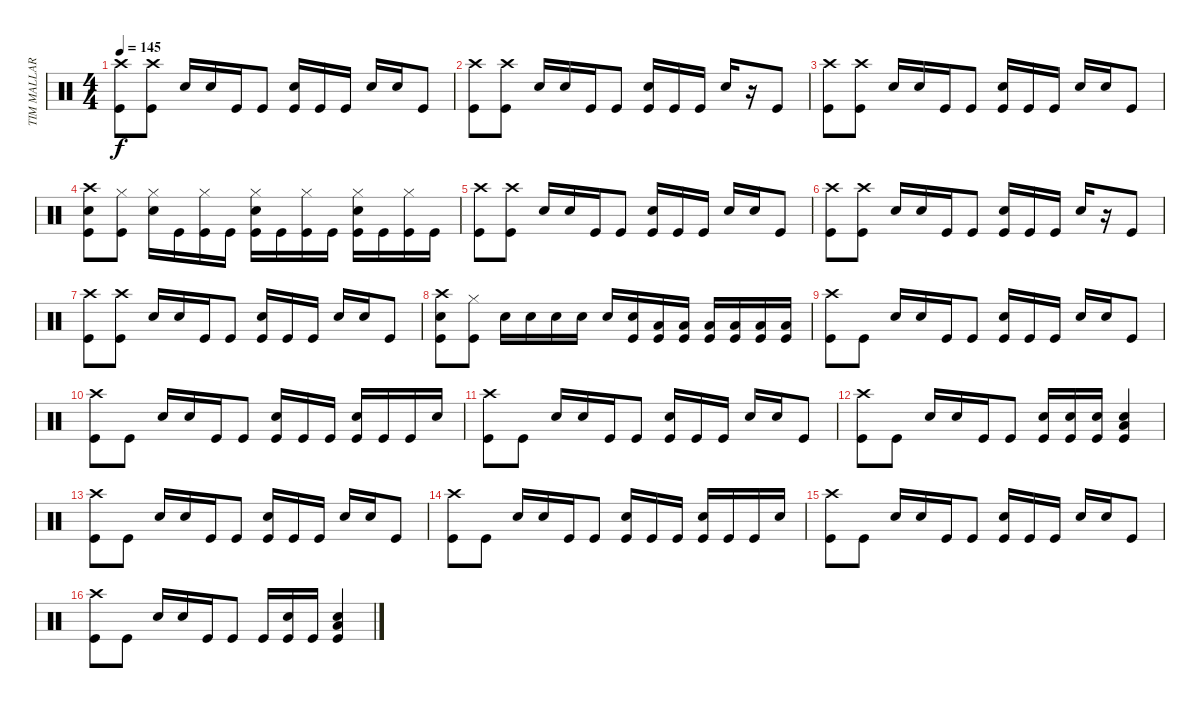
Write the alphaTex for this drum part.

\track ("TIM MALLARE - drums" "TIM MALLAR") {instrument percussion}
\staff {score}
\articulation defaults
\ts (4 4)
\tempo 145
\clef neutral
\ks c
("Crash high (hit)" "Kick (hit)").8{dy f} ("Crash high (hit)" "Kick (hit)").8 "Electric Snare (hit)".16 "Electric Snare (hit)".16 "Kick (hit)".16 "Kick (hit)".8 ("Electric Snare (hit)" "Kick (hit)").16 "Kick (hit)".16 "Kick (hit)".16 "Electric Snare (hit)".16 "Electric Snare (hit)".16 "Kick (hit)".8 |
("Crash high (hit)" "Kick (hit)").8 ("Crash high (hit)" "Kick (hit)").8 "Electric Snare (hit)".16 "Electric Snare (hit)".16 "Kick (hit)".16 "Kick (hit)".8 ("Electric Snare (hit)" "Kick (hit)").16 "Kick (hit)".16 "Kick (hit)".16 "Electric Snare (hit)".16 r.16 "Kick (hit)".8 |
("Crash high (hit)" "Kick (hit)").8 ("Crash high (hit)" "Kick (hit)").8 "Electric Snare (hit)".16 "Electric Snare (hit)".16 "Kick (hit)".16 "Kick (hit)".8 ("Electric Snare (hit)" "Kick (hit)").16 "Kick (hit)".16 "Kick (hit)".16 "Electric Snare (hit)".16 "Electric Snare (hit)".16 "Kick (hit)".8 |
("Crash high (hit)" "Electric Snare (hit)" "Kick (hit)").8 ("Hi-Hat (closed)" "Kick (hit)").8 ("Hi-Hat (closed)" "Electric Snare (hit)").16 "Kick (hit)".16 ("Hi-Hat (closed)" "Kick (hit)").16 "Kick (hit)".16 ("Hi-Hat (closed)" "Electric Snare (hit)" "Kick (hit)").16 "Kick (hit)".16 ("Hi-Hat (closed)" "Kick (hit)").16 "Kick (hit)".16 ("Hi-Hat (closed)" "Electric Snare (hit)" "Kick (hit)").16 "Kick (hit)".16 ("Hi-Hat (closed)" "Kick (hit)").16 "Kick (hit)".16 |
("Crash high (hit)" "Kick (hit)").8 ("Crash high (hit)" "Kick (hit)").8 "Electric Snare (hit)".16 "Electric Snare (hit)".16 "Kick (hit)".16 "Kick (hit)".8 ("Electric Snare (hit)" "Kick (hit)").16 "Kick (hit)".16 "Kick (hit)".16 "Electric Snare (hit)".16 "Electric Snare (hit)".16 "Kick (hit)".8 |
("Crash high (hit)" "Kick (hit)").8 ("Crash high (hit)" "Kick (hit)").8 "Electric Snare (hit)".16 "Electric Snare (hit)".16 "Kick (hit)".16 "Kick (hit)".8 ("Electric Snare (hit)" "Kick (hit)").16 "Kick (hit)".16 "Kick (hit)".16 "Electric Snare (hit)".16 r.16 "Kick (hit)".8 |
("Crash high (hit)" "Kick (hit)").8 ("Crash high (hit)" "Kick (hit)").8 "Electric Snare (hit)".16 "Electric Snare (hit)".16 "Kick (hit)".16 "Kick (hit)".8 ("Electric Snare (hit)" "Kick (hit)").16 "Kick (hit)".16 "Kick (hit)".16 "Electric Snare (hit)".16 "Electric Snare (hit)".16 "Kick (hit)".8 |
("Crash high (hit)" "Electric Snare (hit)" "Kick (hit)").8 ("Hi-Hat (closed)" "Kick (hit)").8 "Electric Snare (hit)".16 "Electric Snare (hit)".16 "Electric Snare (hit)".16 "Electric Snare (hit)".16 "Electric Snare (hit)".16 ("Electric Snare (hit)" "Kick (hit)").16 ("Low Tom (hit)" "Kick (hit)").16 ("Low Tom (hit)" "Kick (hit)").16 ("Low Tom (hit)" "Kick (hit)").16 ("Low Tom (hit)" "Kick (hit)").16 ("Low Tom (hit)" "Kick (hit)").16 ("Low Tom (hit)" "Kick (hit)").16 |
("Crash high (hit)" "Kick (hit)").8 "Kick (hit)".8 "Electric Snare (hit)".16 "Electric Snare (hit)".16 "Kick (hit)".16 "Kick (hit)".8 ("Electric Snare (hit)" "Kick (hit)").16 "Kick (hit)".16 "Kick (hit)".16 "Electric Snare (hit)".16 "Electric Snare (hit)".16 "Kick (hit)".8 |
("Crash high (hit)" "Kick (hit)").8 "Kick (hit)".8 "Electric Snare (hit)".16 "Electric Snare (hit)".16 "Kick (hit)".16 "Kick (hit)".8 ("Electric Snare (hit)" "Kick (hit)").16 "Kick (hit)".16 "Kick (hit)".16 ("Electric Snare (hit)" "Kick (hit)").16 "Kick (hit)".16 "Kick (hit)".16 "Electric Snare (hit)".16 |
("Crash high (hit)" "Kick (hit)").8 "Kick (hit)".8 "Electric Snare (hit)".16 "Electric Snare (hit)".16 "Kick (hit)".16 "Kick (hit)".8 ("Electric Snare (hit)" "Kick (hit)").16 "Kick (hit)".16 "Kick (hit)".16 "Electric Snare (hit)".16 "Electric Snare (hit)".16 "Kick (hit)".8 |
("Crash high (hit)" "Kick (hit)").8 "Kick (hit)".8 "Electric Snare (hit)".16 "Electric Snare (hit)".16 "Kick (hit)".16 "Kick (hit)".8 ("Electric Snare (hit)" "Kick (hit)").16 ("Electric Snare (hit)" "Kick (hit)").16 ("Electric Snare (hit)" "Kick (hit)").16 ("Electric Snare (hit)" "Low Tom (hit)" "Kick (hit)").4 |
("Crash high (hit)" "Kick (hit)").8 "Kick (hit)".8 "Electric Snare (hit)".16 "Electric Snare (hit)".16 "Kick (hit)".16 "Kick (hit)".8 ("Electric Snare (hit)" "Kick (hit)").16 "Kick (hit)".16 "Kick (hit)".16 "Electric Snare (hit)".16 "Electric Snare (hit)".16 "Kick (hit)".8 |
("Crash high (hit)" "Kick (hit)").8 "Kick (hit)".8 "Electric Snare (hit)".16 "Electric Snare (hit)".16 "Kick (hit)".16 "Kick (hit)".8 ("Electric Snare (hit)" "Kick (hit)").16 "Kick (hit)".16 "Kick (hit)".16 ("Electric Snare (hit)" "Kick (hit)").16 "Kick (hit)".16 "Kick (hit)".16 "Electric Snare (hit)".16 |
("Crash high (hit)" "Kick (hit)").8 "Kick (hit)".8 "Electric Snare (hit)".16 "Electric Snare (hit)".16 "Kick (hit)".16 "Kick (hit)".8 ("Electric Snare (hit)" "Kick (hit)").16 "Kick (hit)".16 "Kick (hit)".16 "Electric Snare (hit)".16 "Electric Snare (hit)".16 "Kick (hit)".8 |
("Crash high (hit)" "Kick (hit)").8 "Kick (hit)".8 "Electric Snare (hit)".16 "Electric Snare (hit)".16 "Kick (hit)".16 "Kick (hit)".8 "Kick (hit)".16 ("Electric Snare (hit)" "Kick (hit)").16 "Kick (hit)".16 ("Electric Snare (hit)" "Low Tom (hit)" "Kick (hit)").4
